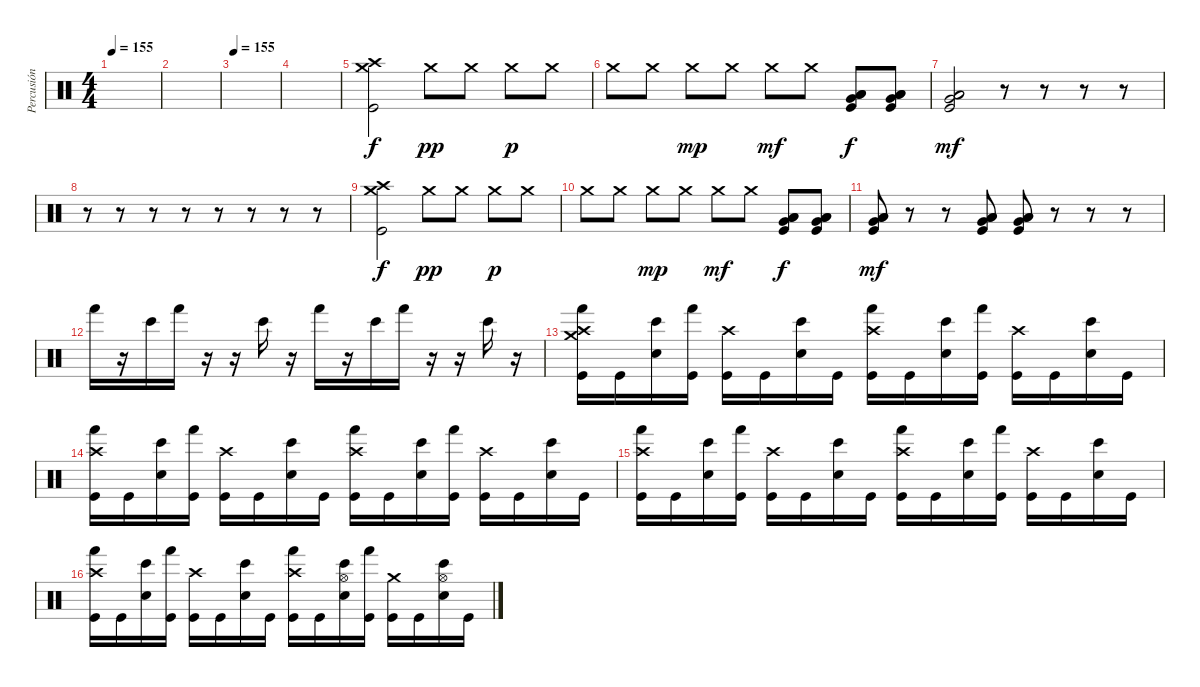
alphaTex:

\track ("Percusión" "Percusión") {instrument percussion}
\staff {score}
\articulation defaults
\ts (4 4)
\tempo 155
\clef neutral
\ks c
|
|
\tempo 155
|
|
("Crash medium (hit)" "Crash high (hit)" "Kick (hit)").2 "Crash medium (hit)".8{dy pp} "Crash medium (hit)".8 "Crash medium (hit)".8{dy p} "Crash medium (hit)".8 |
"Crash medium (hit)".8 "Crash medium (hit)".8 "Crash medium (hit)".8{dy mp} "Crash medium (hit)".8 "Crash medium (hit)".8{dy mf} "Crash medium (hit)".8 ("Low Floor Tom (hit)" "Very Low Tom (hit)" "Low Tom (hit)" "Kick (hit)").8{dy f} ("Low Floor Tom (hit)" "Very Low Tom (hit)" "Low Tom (hit)" "Kick (hit)").8 |
("Low Floor Tom (hit)" "Very Low Tom (hit)" "Low Tom (hit)" "Kick (hit)").2{dy mf} r.8 r.8 r.8 r.8 |
r.8 r.8 r.8 r.8 r.8 r.8 r.8 r.8 |
("Crash medium (hit)" "Crash high (hit)" "Kick (hit)").2{dy f} "Crash medium (hit)".8{dy pp} "Crash medium (hit)".8 "Crash medium (hit)".8{dy p} "Crash medium (hit)".8 |
"Crash medium (hit)".8 "Crash medium (hit)".8 "Crash medium (hit)".8{dy mp} "Crash medium (hit)".8 "Crash medium (hit)".8{dy mf} "Crash medium (hit)".8 ("Low Floor Tom (hit)" "Very Low Tom (hit)" "Low Tom (hit)" "Kick (hit)").8{dy f} ("Low Floor Tom (hit)" "Very Low Tom (hit)" "Low Tom (hit)" "Kick (hit)").8 |
("Low Floor Tom (hit)" "Very Low Tom (hit)" "Low Tom (hit)" "Kick (hit)").8{dy mf} r.8 r.8 ("Low Floor Tom (hit)" "Very Low Tom (hit)" "Low Tom (hit)" "Kick (hit)").8 ("Low Floor Tom (hit)" "Very Low Tom (hit)" "Low Tom (hit)" "Kick (hit)").8 r.8 r.8 r.8 |
"Hand (hit)".16 r.16 "Bongo High (hit)".16 "Hand (hit)".16 r.16 r.16 "Bongo High (hit)".16 r.16 "Hand (hit)".16 r.16 "Bongo High (hit)".16 "Hand (hit)".16 r.16 r.16 "Bongo High (hit)".16 r.16 |
("Hand (hit)" "Crash medium (hit)" "Crash high (hit)" "Kick (hit)").16 "Kick (hit)".16 ("Bongo High (hit)" "Electric Snare (hit)").16 ("Hand (hit)" "Kick (hit)").16 ("Crash high (hit)" "Kick (hit)").16 "Kick (hit)".16 ("Bongo High (hit)" "Electric Snare (hit)").16 "Kick (hit)".16 ("Hand (hit)" "Crash high (hit)" "Kick (hit)").16 "Kick (hit)".16 ("Bongo High (hit)" "Electric Snare (hit)").16 ("Hand (hit)" "Kick (hit)").16 ("Crash high (hit)" "Kick (hit)").16 "Kick (hit)".16 ("Bongo High (hit)" "Electric Snare (hit)").16 "Kick (hit)".16 |
("Hand (hit)" "Crash high (hit)" "Kick (hit)").16 "Kick (hit)".16 ("Bongo High (hit)" "Electric Snare (hit)").16 ("Hand (hit)" "Kick (hit)").16 ("Crash high (hit)" "Kick (hit)").16 "Kick (hit)".16 ("Bongo High (hit)" "Electric Snare (hit)").16 "Kick (hit)".16 ("Hand (hit)" "Crash high (hit)" "Kick (hit)").16 "Kick (hit)".16 ("Bongo High (hit)" "Electric Snare (hit)").16 ("Hand (hit)" "Kick (hit)").16 ("Crash high (hit)" "Kick (hit)").16 "Kick (hit)".16 ("Bongo High (hit)" "Electric Snare (hit)").16 "Kick (hit)".16 |
("Hand (hit)" "Crash high (hit)" "Kick (hit)").16 "Kick (hit)".16 ("Bongo High (hit)" "Electric Snare (hit)").16 ("Hand (hit)" "Kick (hit)").16 ("Crash high (hit)" "Kick (hit)").16 "Kick (hit)".16 ("Bongo High (hit)" "Electric Snare (hit)").16 "Kick (hit)".16 ("Hand (hit)" "Crash high (hit)" "Kick (hit)").16 "Kick (hit)".16 ("Bongo High (hit)" "Electric Snare (hit)").16 ("Hand (hit)" "Kick (hit)").16 ("Crash high (hit)" "Kick (hit)").16 "Kick (hit)".16 ("Bongo High (hit)" "Electric Snare (hit)").16 "Kick (hit)".16 |
("Hand (hit)" "Crash high (hit)" "Kick (hit)").16 "Kick (hit)".16 ("Bongo High (hit)" "Electric Snare (hit)").16 ("Hand (hit)" "Kick (hit)").16 ("Crash high (hit)" "Kick (hit)").16 "Kick (hit)".16 ("Bongo High (hit)" "Electric Snare (hit)").16 "Kick (hit)".16 ("Hand (hit)" "Crash high (hit)" "Kick (hit)").16 "Kick (hit)".16 ("Bongo High (hit)" "Hi-Hat (open)" "Electric Snare (hit)").16 ("Hand (hit)" "Kick (hit)").16 ("Crash medium (hit)" "Kick (hit)").16 "Kick (hit)".16 ("Bongo High (hit)" "Hi-Hat (open)" "Electric Snare (hit)").16 "Kick (hit)".16
